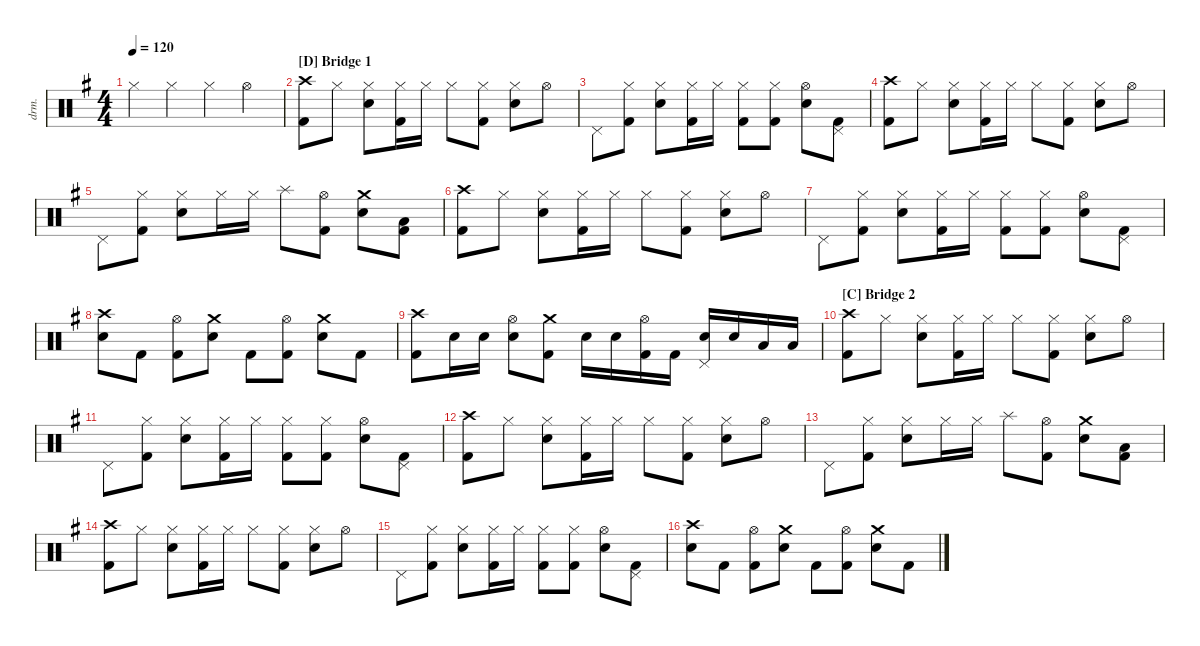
\defaultSystemsLayout 4
\hideDynamics
\bracketExtendMode nobrackets
\track ("Drums" "drm.") {instrument percussion}
\staff {score}
\articulation defaults
\ts (4 4)
\tempo 120
\clef neutral
\ks g "Hi-Hat (closed)"{acc forcenatural}.4{dy mf beam Down} "Hi-Hat (closed)"{acc forcenatural}.4{beam Down} "Hi-Hat (closed)"{acc forcenatural}.4{beam Down} "Hi-Hat (open)"{acc forcenatural}.4{beam Down}
|
\section ("D" "Bridge 1")
("Kick (hit) 2"{acc forcenatural} "Crash high (hit)"{acc forcenatural}).8{beam Down} "Hi-Hat (closed)"{acc forcenatural}.8{beam Down} ("Snare (hit) 2"{acc forcenatural} "Hi-Hat (closed)"{acc forcenatural}).8{beam Down} ("Kick (hit) 2"{acc forcenatural} "Hi-Hat (closed)"{acc forcenatural}).16{beam Down} "Hi-Hat (closed)"{acc forcenatural}.16{beam Down} "Hi-Hat (closed)"{acc forcenatural}.8{beam Down} ("Kick (hit) 2"{acc forcenatural} "Hi-Hat (closed)"{acc forcenatural}).8{beam Down} ("Snare (hit) 2"{acc forcenatural} "Hi-Hat (closed)"{acc forcenatural}).8{beam Down} "Hi-Hat (open)"{acc forcenatural}.8{beam Down} |
"Pedal Hi-Hat (hit)"{acc forcenatural}.8{beam Down} ("Kick (hit) 2"{acc forcenatural} "Hi-Hat (closed)"{acc forcenatural}).8{beam Down} ("Snare (hit) 2"{acc forcenatural} "Hi-Hat (closed)"{acc forcenatural}).8{beam Down} ("Kick (hit) 2"{acc forcenatural} "Hi-Hat (closed)"{acc forcenatural}).16{beam Down} "Hi-Hat (closed)"{acc forcenatural}.16{beam Down} ("Kick (hit) 2"{acc forcenatural} "Hi-Hat (closed)"{acc forcenatural}).8{beam Down} ("Kick (hit) 2"{acc forcenatural} "Hi-Hat (closed)"{acc forcenatural}).8{beam Down} ("Snare (hit) 2"{acc forcenatural} "Hi-Hat (open)"{acc forcenatural}).8{beam Down} ("Kick (hit) 2"{acc forcenatural} "Pedal Hi-Hat (hit)"{acc forcenatural}).8{beam Down} |
("Kick (hit) 2"{acc forcenatural} "Crash high (hit)"{acc forcenatural}).8{beam Down} "Hi-Hat (closed)"{acc forcenatural}.8{beam Down} ("Snare (hit) 2"{acc forcenatural} "Hi-Hat (closed)"{acc forcenatural}).8{beam Down} ("Kick (hit) 2"{acc forcenatural} "Hi-Hat (closed)"{acc forcenatural}).16{beam Down} "Hi-Hat (closed)"{acc forcenatural}.16{beam Down} "Hi-Hat (closed)"{acc forcenatural}.8{beam Down} ("Kick (hit) 2"{acc forcenatural} "Hi-Hat (closed)"{acc forcenatural}).8{beam Down} ("Snare (hit) 2"{acc forcenatural} "Hi-Hat (closed)"{acc forcenatural}).8{beam Down} "Hi-Hat (open)"{acc forcenatural}.8{beam Down} |
"Pedal Hi-Hat (hit)"{acc forcenatural}.8{beam Down} ("Kick (hit) 2"{acc forcenatural} "Hi-Hat (closed)"{acc forcenatural}).8{beam Down} ("Snare (hit) 2"{acc forcenatural} "Hi-Hat (closed)"{acc forcenatural}).8{beam Down} "Hi-Hat (closed)"{acc forcenatural}.16{beam Down} "Hi-Hat (closed)"{acc forcenatural}.16{beam Down} "Splash (hit)"{acc forcenatural}.8{beam Down} ("Kick (hit) 2"{acc forcenatural} "Hi-Hat (open)"{acc forcenatural}).8{beam Down} ("Snare (hit) 2"{acc forcenatural} "Crash medium (hit)"{acc forcenatural}).8{beam Down} ("Kick (hit) 2"{acc forcenatural} "Low Tom (hit)"{acc forcenatural}).8{beam Down} |
("Kick (hit) 2"{acc forcenatural} "Crash high (hit)"{acc forcenatural}).8{beam Down} "Hi-Hat (closed)"{acc forcenatural}.8{beam Down} ("Snare (hit) 2"{acc forcenatural} "Hi-Hat (closed)"{acc forcenatural}).8{beam Down} ("Kick (hit) 2"{acc forcenatural} "Hi-Hat (closed)"{acc forcenatural}).16{beam Down} "Hi-Hat (closed)"{acc forcenatural}.16{beam Down} "Hi-Hat (closed)"{acc forcenatural}.8{beam Down} ("Kick (hit) 2"{acc forcenatural} "Hi-Hat (closed)"{acc forcenatural}).8{beam Down} ("Snare (hit) 2"{acc forcenatural} "Hi-Hat (closed)"{acc forcenatural}).8{beam Down} "Hi-Hat (open)"{acc forcenatural}.8{beam Down} |
"Pedal Hi-Hat (hit)"{acc forcenatural}.8{beam Down} ("Kick (hit) 2"{acc forcenatural} "Hi-Hat (closed)"{acc forcenatural}).8{beam Down} ("Snare (hit) 2"{acc forcenatural} "Hi-Hat (closed)"{acc forcenatural}).8{beam Down} ("Kick (hit) 2"{acc forcenatural} "Hi-Hat (closed)"{acc forcenatural}).16{beam Down} "Hi-Hat (closed)"{acc forcenatural}.16{beam Down} ("Kick (hit) 2"{acc forcenatural} "Hi-Hat (closed)"{acc forcenatural}).8{beam Down} ("Kick (hit) 2"{acc forcenatural} "Hi-Hat (closed)"{acc forcenatural}).8{beam Down} ("Snare (hit) 2"{acc forcenatural} "Hi-Hat (open)"{acc forcenatural}).8{beam Down} ("Kick (hit) 2"{acc forcenatural} "Pedal Hi-Hat (hit)"{acc forcenatural}).8{beam Down} |
("Snare (hit) 2"{acc forcenatural} "Crash high (hit)"{acc forcenatural}).8{beam Down} "Kick (hit) 2"{acc forcenatural}.8{beam Down} ("Kick (hit) 2"{acc forcenatural} "Hi-Hat (open)"{acc forcenatural}).8{beam Down} ("Snare (hit) 2"{acc forcenatural} "Crash medium (hit)"{acc forcenatural}).8{beam Down} "Kick (hit) 2"{acc forcenatural}.8{beam Down} ("Kick (hit) 2"{acc forcenatural} "Hi-Hat (open)"{acc forcenatural}).8{beam Down} ("Snare (hit) 2"{acc forcenatural} "Crash medium (hit)"{acc forcenatural}).8{beam Down} "Kick (hit) 2"{acc forcenatural}.8{beam Down} |
("Kick (hit) 2"{acc forcenatural} "Crash high (hit)"{acc forcenatural}).8{beam Down} "Snare (hit) 2"{acc forcenatural}.16{beam Down} "Snare (hit) 2"{acc forcenatural}.16{beam Down} ("Snare (hit) 2"{acc forcenatural} "Hi-Hat (open)"{acc forcenatural}).8{beam Down} ("Kick (hit) 2"{acc forcenatural} "Crash medium (hit)"{acc forcenatural}).8{beam Down} "Snare (hit) 2"{acc forcenatural}.16{beam Down} "Snare (hit) 2"{acc forcenatural}.16{beam Down} ("Kick (hit) 2"{acc forcenatural} "Hi-Hat (open)"{acc forcenatural}).16{beam Down} "Kick (hit) 2"{acc forcenatural}.16{beam Down} ("Snare (hit) 2"{acc forcenatural} "Pedal Hi-Hat (hit)"{acc forcenatural}).16{beam Up} "Snare (hit) 2"{acc forcenatural}.16{beam Up} "Low Tom (hit)"{acc forcenatural}.16{beam Up} "Low Tom (hit)"{acc forcenatural}.16{beam Up} |
\section ("C" "Bridge 2")
("Kick (hit) 2"{acc forcenatural} "Crash high (hit)"{acc forcenatural}).8{beam Down} "Hi-Hat (closed)"{acc forcenatural}.8{beam Down} ("Snare (hit) 2"{acc forcenatural} "Hi-Hat (closed)"{acc forcenatural}).8{beam Down} ("Kick (hit) 2"{acc forcenatural} "Hi-Hat (closed)"{acc forcenatural}).16{beam Down} "Hi-Hat (closed)"{acc forcenatural}.16{beam Down} "Hi-Hat (closed)"{acc forcenatural}.8{beam Down} ("Kick (hit) 2"{acc forcenatural} "Hi-Hat (closed)"{acc forcenatural}).8{beam Down} ("Snare (hit) 2"{acc forcenatural} "Hi-Hat (closed)"{acc forcenatural}).8{beam Down} "Hi-Hat (open)"{acc forcenatural}.8{beam Down} |
"Pedal Hi-Hat (hit)"{acc forcenatural}.8{beam Down} ("Kick (hit) 2"{acc forcenatural} "Hi-Hat (closed)"{acc forcenatural}).8{beam Down} ("Snare (hit) 2"{acc forcenatural} "Hi-Hat (closed)"{acc forcenatural}).8{beam Down} ("Kick (hit) 2"{acc forcenatural} "Hi-Hat (closed)"{acc forcenatural}).16{beam Down} "Hi-Hat (closed)"{acc forcenatural}.16{beam Down} ("Kick (hit) 2"{acc forcenatural} "Hi-Hat (closed)"{acc forcenatural}).8{beam Down} ("Kick (hit) 2"{acc forcenatural} "Hi-Hat (closed)"{acc forcenatural}).8{beam Down} ("Snare (hit) 2"{acc forcenatural} "Hi-Hat (open)"{acc forcenatural}).8{beam Down} ("Kick (hit) 2"{acc forcenatural} "Pedal Hi-Hat (hit)"{acc forcenatural}).8{beam Down} |
("Kick (hit) 2"{acc forcenatural} "Crash high (hit)"{acc forcenatural}).8{beam Down} "Hi-Hat (closed)"{acc forcenatural}.8{beam Down} ("Snare (hit) 2"{acc forcenatural} "Hi-Hat (closed)"{acc forcenatural}).8{beam Down} ("Kick (hit) 2"{acc forcenatural} "Hi-Hat (closed)"{acc forcenatural}).16{beam Down} "Hi-Hat (closed)"{acc forcenatural}.16{beam Down} "Hi-Hat (closed)"{acc forcenatural}.8{beam Down} ("Kick (hit) 2"{acc forcenatural} "Hi-Hat (closed)"{acc forcenatural}).8{beam Down} ("Snare (hit) 2"{acc forcenatural} "Hi-Hat (closed)"{acc forcenatural}).8{beam Down} "Hi-Hat (open)"{acc forcenatural}.8{beam Down} |
"Pedal Hi-Hat (hit)"{acc forcenatural}.8{beam Down} ("Kick (hit) 2"{acc forcenatural} "Hi-Hat (closed)"{acc forcenatural}).8{beam Down} ("Snare (hit) 2"{acc forcenatural} "Hi-Hat (closed)"{acc forcenatural}).8{beam Down} "Hi-Hat (closed)"{acc forcenatural}.16{beam Down} "Hi-Hat (closed)"{acc forcenatural}.16{beam Down} "Splash (hit)"{acc forcenatural}.8{beam Down} ("Kick (hit) 2"{acc forcenatural} "Hi-Hat (open)"{acc forcenatural}).8{beam Down} ("Snare (hit) 2"{acc forcenatural} "Crash medium (hit)"{acc forcenatural}).8{beam Down} ("Kick (hit) 2"{acc forcenatural} "Low Tom (hit)"{acc forcenatural}).8{beam Down} |
("Kick (hit) 2"{acc forcenatural} "Crash high (hit)"{acc forcenatural}).8{beam Down} "Hi-Hat (closed)"{acc forcenatural}.8{beam Down} ("Snare (hit) 2"{acc forcenatural} "Hi-Hat (closed)"{acc forcenatural}).8{beam Down} ("Kick (hit) 2"{acc forcenatural} "Hi-Hat (closed)"{acc forcenatural}).16{beam Down} "Hi-Hat (closed)"{acc forcenatural}.16{beam Down} "Hi-Hat (closed)"{acc forcenatural}.8{beam Down} ("Kick (hit) 2"{acc forcenatural} "Hi-Hat (closed)"{acc forcenatural}).8{beam Down} ("Snare (hit) 2"{acc forcenatural} "Hi-Hat (closed)"{acc forcenatural}).8{beam Down} "Hi-Hat (open)"{acc forcenatural}.8{beam Down} |
"Pedal Hi-Hat (hit)"{acc forcenatural}.8{beam Down} ("Kick (hit) 2"{acc forcenatural} "Hi-Hat (closed)"{acc forcenatural}).8{beam Down} ("Snare (hit) 2"{acc forcenatural} "Hi-Hat (closed)"{acc forcenatural}).8{beam Down} ("Kick (hit) 2"{acc forcenatural} "Hi-Hat (closed)"{acc forcenatural}).16{beam Down} "Hi-Hat (closed)"{acc forcenatural}.16{beam Down} ("Kick (hit) 2"{acc forcenatural} "Hi-Hat (closed)"{acc forcenatural}).8{beam Down} ("Kick (hit) 2"{acc forcenatural} "Hi-Hat (closed)"{acc forcenatural}).8{beam Down} ("Snare (hit) 2"{acc forcenatural} "Hi-Hat (open)"{acc forcenatural}).8{beam Down} ("Kick (hit) 2"{acc forcenatural} "Pedal Hi-Hat (hit)"{acc forcenatural}).8{beam Down} |
("Snare (hit) 2"{acc forcenatural} "Crash high (hit)"{acc forcenatural}).8{beam Down} "Kick (hit) 2"{acc forcenatural}.8{beam Down} ("Kick (hit) 2"{acc forcenatural} "Hi-Hat (open)"{acc forcenatural}).8{beam Down} ("Snare (hit) 2"{acc forcenatural} "Crash medium (hit)"{acc forcenatural}).8{beam Down} "Kick (hit) 2"{acc forcenatural}.8{beam Down} ("Kick (hit) 2"{acc forcenatural} "Hi-Hat (open)"{acc forcenatural}).8{beam Down} ("Snare (hit) 2"{acc forcenatural} "Crash medium (hit)"{acc forcenatural}).8{beam Down} "Kick (hit) 2"{acc forcenatural}.8{beam Down}
